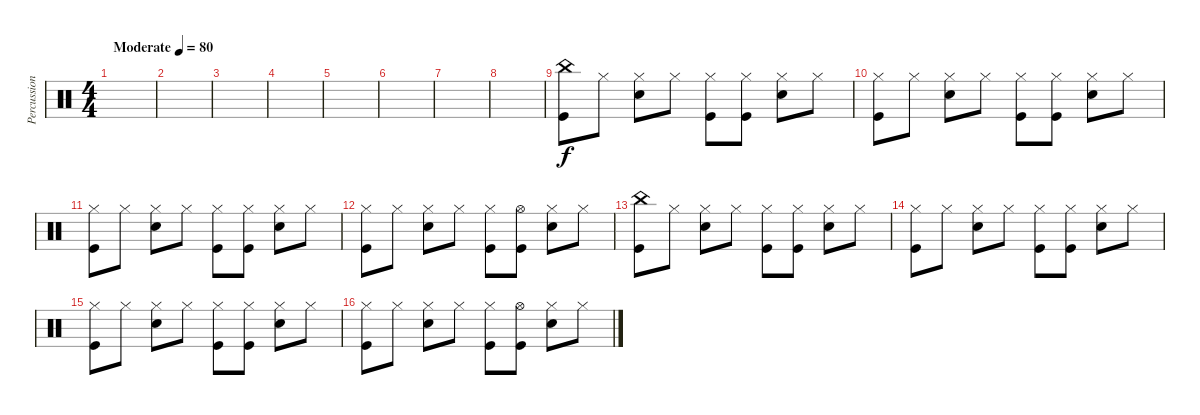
\track ("Percussions" "Percussion") {instrument percussion}
\staff {score}
\articulation defaults
\ts (4 4)
\tempo (80 "Moderate")
\clef neutral
\ks c
|
|
|
|
|
|
|
|
("China (hit)" "Kick (hit)").8 "Hi-Hat (closed)".8 ("Hi-Hat (closed)" "Snare (hit) 2").8 "Hi-Hat (closed)".8 ("Hi-Hat (closed)" "Kick (hit)").8 ("Hi-Hat (closed)" "Kick (hit)").8 ("Hi-Hat (closed)" "Snare (hit) 2").8 "Hi-Hat (closed)".8 |
("Hi-Hat (closed)" "Kick (hit)").8 "Hi-Hat (closed)".8 ("Hi-Hat (closed)" "Snare (hit) 2").8 "Hi-Hat (closed)".8 ("Hi-Hat (closed)" "Kick (hit)").8 ("Hi-Hat (closed)" "Kick (hit)").8 ("Hi-Hat (closed)" "Snare (hit) 2").8 "Hi-Hat (closed)".8 |
("Hi-Hat (closed)" "Kick (hit)").8 "Hi-Hat (closed)".8 ("Hi-Hat (closed)" "Snare (hit) 2").8 "Hi-Hat (closed)".8 ("Hi-Hat (closed)" "Kick (hit)").8 ("Hi-Hat (closed)" "Kick (hit)").8 ("Hi-Hat (closed)" "Snare (hit) 2").8 "Hi-Hat (closed)".8 |
("Hi-Hat (closed)" "Kick (hit)").8 "Hi-Hat (closed)".8 ("Hi-Hat (closed)" "Snare (hit) 2").8 "Hi-Hat (closed)".8 ("Hi-Hat (closed)" "Kick (hit)").8 ("Hi-Hat (open)" "Kick (hit)").8 ("Hi-Hat (closed)" "Snare (hit) 2").8 "Hi-Hat (closed)".8 |
("China (hit)" "Kick (hit)").8 "Hi-Hat (closed)".8 ("Hi-Hat (closed)" "Snare (hit) 2").8 "Hi-Hat (closed)".8 ("Hi-Hat (closed)" "Kick (hit)").8 ("Hi-Hat (closed)" "Kick (hit)").8 ("Hi-Hat (closed)" "Snare (hit) 2").8 "Hi-Hat (closed)".8 |
("Hi-Hat (closed)" "Kick (hit)").8 "Hi-Hat (closed)".8 ("Hi-Hat (closed)" "Snare (hit) 2").8 "Hi-Hat (closed)".8 ("Hi-Hat (closed)" "Kick (hit)").8 ("Hi-Hat (closed)" "Kick (hit)").8 ("Hi-Hat (closed)" "Snare (hit) 2").8 "Hi-Hat (closed)".8 |
("Hi-Hat (closed)" "Kick (hit)").8 "Hi-Hat (closed)".8 ("Hi-Hat (closed)" "Snare (hit) 2").8 "Hi-Hat (closed)".8 ("Hi-Hat (closed)" "Kick (hit)").8 ("Hi-Hat (closed)" "Kick (hit)").8 ("Hi-Hat (closed)" "Snare (hit) 2").8 "Hi-Hat (closed)".8 |
("Hi-Hat (closed)" "Kick (hit)").8 "Hi-Hat (closed)".8 ("Hi-Hat (closed)" "Snare (hit) 2").8 "Hi-Hat (closed)".8 ("Hi-Hat (closed)" "Kick (hit)").8 ("Hi-Hat (open)" "Kick (hit)").8 ("Hi-Hat (closed)" "Snare (hit) 2").8 "Hi-Hat (closed)".8
